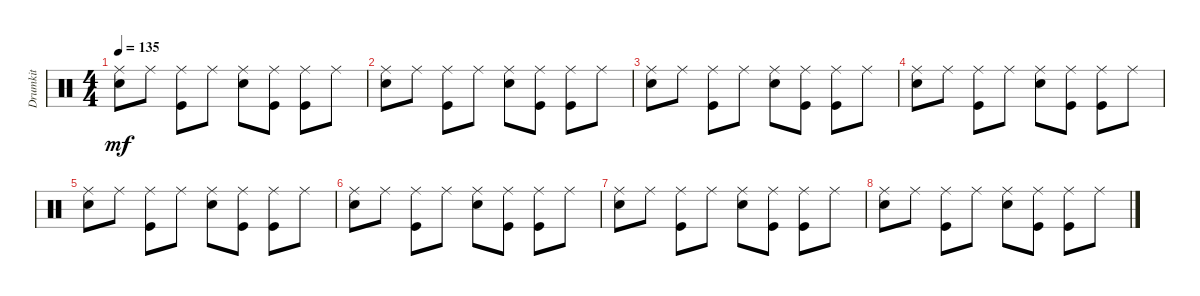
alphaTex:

\track ("Drumkit" "Drumkit") {instrument percussion}
\staff {score}
\articulation defaults
\ts (4 4)
\tempo 135
\clef neutral
\ks c
("Snare (hit) 2" "Ride (middle)").8{dy mf} "Ride (middle)".8 ("Kick (hit)" "Ride (middle)").8 "Ride (middle)".8 ("Snare (hit) 2" "Ride (middle)").8 ("Kick (hit)" "Ride (middle)").8 ("Kick (hit)" "Ride (middle)").8 "Ride (middle)".8 |
("Snare (hit) 2" "Ride (middle)").8 "Ride (middle)".8 ("Kick (hit)" "Ride (middle)").8 "Ride (middle)".8 ("Snare (hit) 2" "Ride (middle)").8 ("Kick (hit)" "Ride (middle)").8 ("Kick (hit)" "Ride (middle)").8 "Ride (middle)".8 |
("Snare (hit) 2" "Ride (middle)").8 "Ride (middle)".8 ("Kick (hit)" "Ride (middle)").8 "Ride (middle)".8 ("Snare (hit) 2" "Ride (middle)").8 ("Kick (hit)" "Ride (middle)").8 ("Kick (hit)" "Ride (middle)").8 "Ride (middle)".8 |
("Snare (hit) 2" "Ride (middle)").8 "Ride (middle)".8 ("Kick (hit)" "Ride (middle)").8 "Ride (middle)".8 ("Snare (hit) 2" "Ride (middle)").8 ("Kick (hit)" "Ride (middle)").8 ("Kick (hit)" "Ride (middle)").8 "Ride (middle)".8 |
("Snare (hit) 2" "Ride (middle)").8 "Ride (middle)".8 ("Kick (hit)" "Ride (middle)").8 "Ride (middle)".8 ("Snare (hit) 2" "Ride (middle)").8 ("Kick (hit)" "Ride (middle)").8 ("Kick (hit)" "Ride (middle)").8 "Ride (middle)".8 |
("Snare (hit) 2" "Ride (middle)").8 "Ride (middle)".8 ("Kick (hit)" "Ride (middle)").8 "Ride (middle)".8 ("Snare (hit) 2" "Ride (middle)").8 ("Kick (hit)" "Ride (middle)").8 ("Kick (hit)" "Ride (middle)").8 "Ride (middle)".8 |
("Snare (hit) 2" "Ride (middle)").8 "Ride (middle)".8 ("Kick (hit)" "Ride (middle)").8 "Ride (middle)".8 ("Snare (hit) 2" "Ride (middle)").8 ("Kick (hit)" "Ride (middle)").8 ("Kick (hit)" "Ride (middle)").8 "Ride (middle)".8 |
("Snare (hit) 2" "Ride (middle)").8 "Ride (middle)".8 ("Kick (hit)" "Ride (middle)").8 "Ride (middle)".8 ("Snare (hit) 2" "Ride (middle)").8 ("Kick (hit)" "Ride (middle)").8 ("Kick (hit)" "Ride (middle)").8 "Ride (middle)".8
